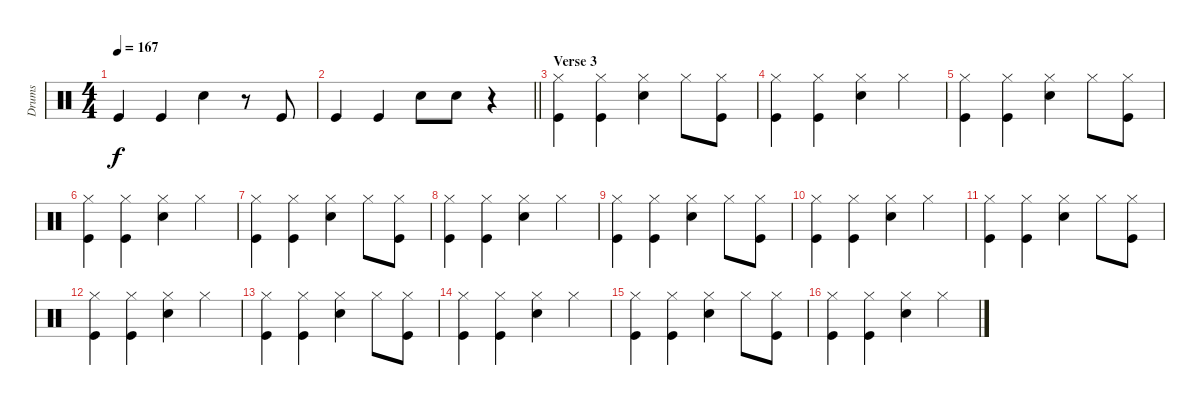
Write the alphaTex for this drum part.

\track ("Drums" "Drums") {instrument percussion}
\staff {score}
\articulation defaults
\ts (4 4)
\tempo 167
\clef neutral
\ks c "Kick (hit)".4{dy f} "Kick (hit)".4 "Electric Snare (hit)".4
r.8 "Kick (hit)".8 |
\barLineRight lightlight "Kick (hit)".4 "Kick (hit)".4 "Electric Snare (hit)".8 "Electric Snare (hit)".8
r.4 |
\section ("" "Verse 3")
("Kick (hit)" "Hi-Hat (closed)").4 ("Kick (hit)" "Hi-Hat (closed)").4 ("Electric Snare (hit)" "Hi-Hat (closed)").4 "Hi-Hat (closed)".8 ("Kick (hit)" "Hi-Hat (closed)").8 |
("Kick (hit)" "Hi-Hat (closed)").4 ("Kick (hit)" "Hi-Hat (closed)").4 ("Electric Snare (hit)" "Hi-Hat (closed)").4 "Hi-Hat (closed)".4 |
("Kick (hit)" "Hi-Hat (closed)").4 ("Kick (hit)" "Hi-Hat (closed)").4 ("Electric Snare (hit)" "Hi-Hat (closed)").4 "Hi-Hat (closed)".8 ("Kick (hit)" "Hi-Hat (closed)").8 |
("Kick (hit)" "Hi-Hat (closed)").4 ("Kick (hit)" "Hi-Hat (closed)").4 ("Electric Snare (hit)" "Hi-Hat (closed)").4 "Hi-Hat (closed)".4 |
("Kick (hit)" "Hi-Hat (closed)").4 ("Kick (hit)" "Hi-Hat (closed)").4 ("Electric Snare (hit)" "Hi-Hat (closed)").4 "Hi-Hat (closed)".8 ("Kick (hit)" "Hi-Hat (closed)").8 |
("Kick (hit)" "Hi-Hat (closed)").4 ("Kick (hit)" "Hi-Hat (closed)").4 ("Electric Snare (hit)" "Hi-Hat (closed)").4 "Hi-Hat (closed)".4 |
("Kick (hit)" "Hi-Hat (closed)").4 ("Kick (hit)" "Hi-Hat (closed)").4 ("Electric Snare (hit)" "Hi-Hat (closed)").4 "Hi-Hat (closed)".8 ("Kick (hit)" "Hi-Hat (closed)").8 |
("Kick (hit)" "Hi-Hat (closed)").4 ("Kick (hit)" "Hi-Hat (closed)").4 ("Electric Snare (hit)" "Hi-Hat (closed)").4 "Hi-Hat (closed)".4 |
("Kick (hit)" "Hi-Hat (closed)").4 ("Kick (hit)" "Hi-Hat (closed)").4 ("Electric Snare (hit)" "Hi-Hat (closed)").4 "Hi-Hat (closed)".8 ("Kick (hit)" "Hi-Hat (closed)").8 |
("Kick (hit)" "Hi-Hat (closed)").4 ("Kick (hit)" "Hi-Hat (closed)").4 ("Electric Snare (hit)" "Hi-Hat (closed)").4 "Hi-Hat (closed)".4 |
("Kick (hit)" "Hi-Hat (closed)").4 ("Kick (hit)" "Hi-Hat (closed)").4 ("Electric Snare (hit)" "Hi-Hat (closed)").4 "Hi-Hat (closed)".8 ("Kick (hit)" "Hi-Hat (closed)").8 |
("Kick (hit)" "Hi-Hat (closed)").4 ("Kick (hit)" "Hi-Hat (closed)").4 ("Electric Snare (hit)" "Hi-Hat (closed)").4 "Hi-Hat (closed)".4 |
("Kick (hit)" "Hi-Hat (closed)").4 ("Kick (hit)" "Hi-Hat (closed)").4 ("Electric Snare (hit)" "Hi-Hat (closed)").4 "Hi-Hat (closed)".8 ("Kick (hit)" "Hi-Hat (closed)").8 |
("Kick (hit)" "Hi-Hat (closed)").4 ("Kick (hit)" "Hi-Hat (closed)").4 ("Electric Snare (hit)" "Hi-Hat (closed)").4 "Hi-Hat (closed)".4
